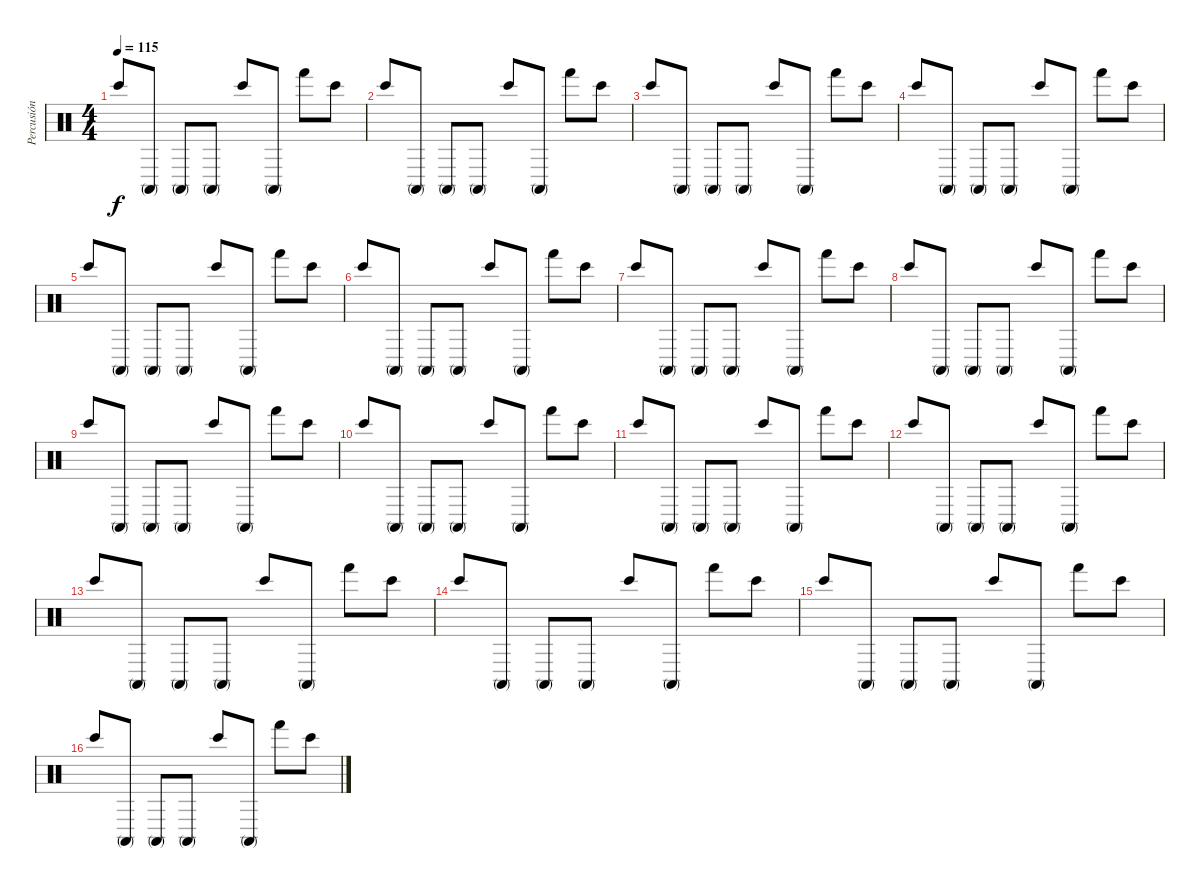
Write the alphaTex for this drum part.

\track ("Percusión" "Percusión") {instrument percussion}
\staff {score}
\articulation defaults
\ts (4 4)
\tempo 115
\clef neutral
\ks c "Bongo High (hit)".8{dy f} "Conga high (mute)".8 "Conga high (mute)".8 "Conga high (mute)".8 "Bongo High (hit)".8 "Conga high (mute)".8 "Hand (hit)".8 "Bongo High (hit)".8
|
"Bongo High (hit)".8 "Conga high (mute)".8 "Conga high (mute)".8 "Conga high (mute)".8 "Bongo High (hit)".8 "Conga high (mute)".8 "Hand (hit)".8 "Bongo High (hit)".8 |
"Bongo High (hit)".8 "Conga high (mute)".8 "Conga high (mute)".8 "Conga high (mute)".8 "Bongo High (hit)".8 "Conga high (mute)".8 "Hand (hit)".8 "Bongo High (hit)".8 |
"Bongo High (hit)".8 "Conga high (mute)".8 "Conga high (mute)".8 "Conga high (mute)".8 "Bongo High (hit)".8 "Conga high (mute)".8 "Hand (hit)".8 "Bongo High (hit)".8 |
"Bongo High (hit)".8 "Conga high (mute)".8 "Conga high (mute)".8 "Conga high (mute)".8 "Bongo High (hit)".8 "Conga high (mute)".8 "Hand (hit)".8 "Bongo High (hit)".8 |
"Bongo High (hit)".8 "Conga high (mute)".8 "Conga high (mute)".8 "Conga high (mute)".8 "Bongo High (hit)".8 "Conga high (mute)".8 "Hand (hit)".8 "Bongo High (hit)".8 |
"Bongo High (hit)".8 "Conga high (mute)".8 "Conga high (mute)".8 "Conga high (mute)".8 "Bongo High (hit)".8 "Conga high (mute)".8 "Hand (hit)".8 "Bongo High (hit)".8 |
"Bongo High (hit)".8 "Conga high (mute)".8 "Conga high (mute)".8 "Conga high (mute)".8 "Bongo High (hit)".8 "Conga high (mute)".8 "Hand (hit)".8 "Bongo High (hit)".8 |
"Bongo High (hit)".8 "Conga high (mute)".8 "Conga high (mute)".8 "Conga high (mute)".8 "Bongo High (hit)".8 "Conga high (mute)".8 "Hand (hit)".8 "Bongo High (hit)".8 |
"Bongo High (hit)".8 "Conga high (mute)".8 "Conga high (mute)".8 "Conga high (mute)".8 "Bongo High (hit)".8 "Conga high (mute)".8 "Hand (hit)".8 "Bongo High (hit)".8 |
"Bongo High (hit)".8 "Conga high (mute)".8 "Conga high (mute)".8 "Conga high (mute)".8 "Bongo High (hit)".8 "Conga high (mute)".8 "Hand (hit)".8 "Bongo High (hit)".8 |
"Bongo High (hit)".8 "Conga high (mute)".8 "Conga high (mute)".8 "Conga high (mute)".8 "Bongo High (hit)".8 "Conga high (mute)".8 "Hand (hit)".8 "Bongo High (hit)".8 |
"Bongo High (hit)".8 "Conga high (mute)".8 "Conga high (mute)".8 "Conga high (mute)".8 "Bongo High (hit)".8 "Conga high (mute)".8 "Hand (hit)".8 "Bongo High (hit)".8 |
"Bongo High (hit)".8 "Conga high (mute)".8 "Conga high (mute)".8 "Conga high (mute)".8 "Bongo High (hit)".8 "Conga high (mute)".8 "Hand (hit)".8 "Bongo High (hit)".8 |
"Bongo High (hit)".8 "Conga high (mute)".8 "Conga high (mute)".8 "Conga high (mute)".8 "Bongo High (hit)".8 "Conga high (mute)".8 "Hand (hit)".8 "Bongo High (hit)".8 |
"Bongo High (hit)".8 "Conga high (mute)".8 "Conga high (mute)".8 "Conga high (mute)".8 "Bongo High (hit)".8 "Conga high (mute)".8 "Hand (hit)".8 "Bongo High (hit)".8
